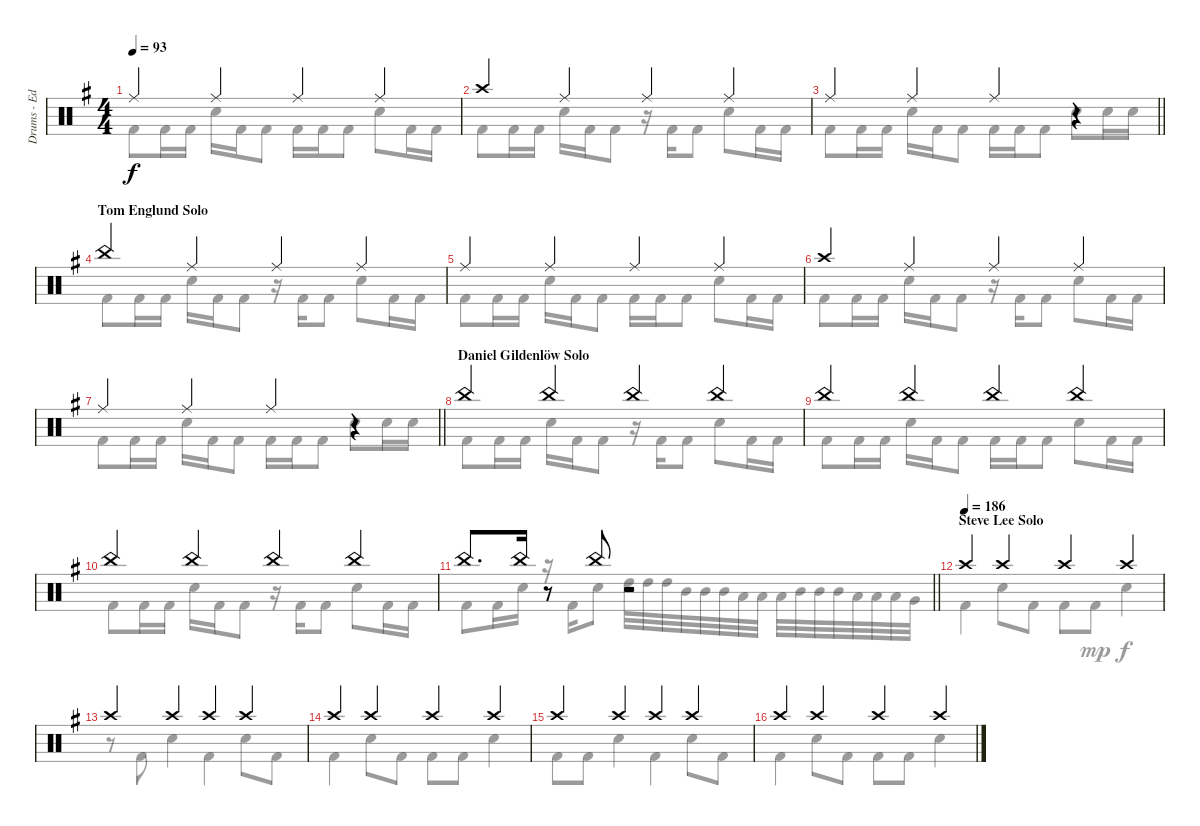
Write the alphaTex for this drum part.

\track ("Drums - Ed Warby" "Drums - Ed") {instrument percussion}
\staff {score}
\articulation defaults
\voice
\ts (4 4)
\tempo 93
\clef neutral
\ks eminor "Ride (middle)".4{dy f} "Ride (middle)".4 "Ride (middle)".4 "Ride (middle)".4
|
"Crash high (hit)".4 "Ride (middle)".4 "Ride (middle)".4 "Ride (middle)".4 |
\barLineRight lightlight "Ride (middle)".4 "Ride (middle)".4 "Ride (middle)".4
r.4 |
\section ("" "Tom Englund Solo")
"China (hit)".4 "Ride (middle)".4 "Ride (middle)".4 "Ride (middle)".4 |
"Ride (middle)".4 "Ride (middle)".4 "Ride (middle)".4 "Ride (middle)".4 |
"Crash high (hit)".4 "Ride (middle)".4 "Ride (middle)".4 "Ride (middle)".4 |
\barLineRight lightlight "Ride (middle)".4 "Ride (middle)".4 "Ride (middle)".4
r.4 |
\section ("" "Daniel Gildenlöw Solo")
"China (hit)".4 "China (hit)".4 "China (hit)".4 "China (hit)".4 |
"China (hit)".4 "China (hit)".4 "China (hit)".4 "China (hit)".4 |
"China (hit)".4 "China (hit)".4 "China (hit)".4 "China (hit)".4 |
\barLineRight lightlight "China (hit)".8{d} "China (hit)".16
r.8 "China (hit)".8 r.2 |
\section ("" "Steve Lee Solo")
\tempo (186)
"Crash high (hit)".4 "Crash high (hit)".4 "Crash high (hit)".4 "Crash high (hit)".4 |
"Crash high (hit)".4 "Crash high (hit)".4 "Crash high (hit)".4 "Crash high (hit)".4 |
"Crash high (hit)".4 "Crash high (hit)".4 "Crash high (hit)".4 "Crash high (hit)".4 |
"Crash high (hit)".4 "Crash high (hit)".4 "Crash high (hit)".4 "Crash high (hit)".4 |
"Crash high (hit)".4 "Crash high (hit)".4 "Crash high (hit)".4 "Crash high (hit)".4
\voice
\clef neutral
\ottava regular
\simile none
\ks eminor "Kick (hit) 2".8{dy f} "Kick (hit) 2".16 "Kick (hit) 2".16 "Snare (hit) 2".16 "Kick (hit) 2".16 "Kick (hit) 2".8 "Kick (hit) 2".16 "Kick (hit) 2".16 "Kick (hit) 2".8 "Snare (hit) 2".8 "Kick (hit) 2".16 "Kick (hit) 2".16
|
"Kick (hit) 2".8 "Kick (hit) 2".16 "Kick (hit) 2".16 "Snare (hit) 2".16 "Kick (hit) 2".16 "Kick (hit) 2".8 r.16 "Kick (hit) 2".16 "Kick (hit) 2".8 "Snare (hit) 2".8 "Kick (hit) 2".16 "Kick (hit) 2".16 |
\barLineRight lightlight "Kick (hit) 2".8 "Kick (hit) 2".16 "Kick (hit) 2".16 "Snare (hit) 2".16 "Kick (hit) 2".16 "Kick (hit) 2".8 "Kick (hit) 2".16 "Kick (hit) 2".16 "Kick (hit) 2".8 "Snare (hit) 2".8 "Snare (hit) 2".16 "Snare (hit) 2".16
|
"Kick (hit) 2".8 "Kick (hit) 2".16 "Kick (hit) 2".16 "Snare (hit) 2".16 "Kick (hit) 2".16 "Kick (hit) 2".8 r.16 "Kick (hit) 2".16 "Kick (hit) 2".8 "Snare (hit) 2".8 "Kick (hit) 2".16 "Kick (hit) 2".16 |
"Kick (hit) 2".8 "Kick (hit) 2".16 "Kick (hit) 2".16 "Snare (hit) 2".16 "Kick (hit) 2".16 "Kick (hit) 2".8 "Kick (hit) 2".16 "Kick (hit) 2".16 "Kick (hit) 2".8 "Snare (hit) 2".8 "Kick (hit) 2".16 "Kick (hit) 2".16 |
"Kick (hit) 2".8 "Kick (hit) 2".16 "Kick (hit) 2".16 "Snare (hit) 2".16 "Kick (hit) 2".16 "Kick (hit) 2".8 r.16 "Kick (hit) 2".16 "Kick (hit) 2".8 "Snare (hit) 2".8 "Kick (hit) 2".16 "Kick (hit) 2".16 |
\barLineRight lightlight "Kick (hit) 2".8 "Kick (hit) 2".16 "Kick (hit) 2".16 "Snare (hit) 2".16 "Kick (hit) 2".16 "Kick (hit) 2".8 "Kick (hit) 2".16 "Kick (hit) 2".16 "Kick (hit) 2".8 "Snare (hit) 2".8 "Snare (hit) 2".16 "Snare (hit) 2".16
|
"Kick (hit) 2".8 "Kick (hit) 2".16 "Kick (hit) 2".16 "Snare (hit) 2".16 "Kick (hit) 2".16 "Kick (hit) 2".8 r.16 "Kick (hit) 2".16 "Kick (hit) 2".8 "Snare (hit) 2".8 "Kick (hit) 2".16 "Kick (hit) 2".16 |
"Kick (hit) 2".8 "Kick (hit) 2".16 "Kick (hit) 2".16 "Snare (hit) 2".16 "Kick (hit) 2".16 "Kick (hit) 2".8 "Kick (hit) 2".16 "Kick (hit) 2".16 "Kick (hit) 2".8 "Snare (hit) 2".8 "Kick (hit) 2".16 "Kick (hit) 2".16 |
"Kick (hit) 2".8 "Kick (hit) 2".16 "Kick (hit) 2".16 "Snare (hit) 2".16 "Kick (hit) 2".16 "Kick (hit) 2".8 r.16 "Kick (hit) 2".16 "Kick (hit) 2".8 "Snare (hit) 2".8 "Kick (hit) 2".16 "Kick (hit) 2".16 |
\barLineRight lightlight "Kick (hit) 2".8 "Kick (hit) 2".16 "Snare (hit) 2".16
r.16 "Kick (hit) 2".16 "Snare (hit) 2".8 "High Tom (hit)".32 "High Tom (hit)".32 "High Tom (hit)".32 "Mid Tom (hit)".32 "Mid Tom (hit)".32 "Mid Tom (hit)".32 "Low Tom (hit)".32 "Low Tom (hit)".32 "Low Tom (hit)".32 "Mid Tom (hit)".32 "Mid Tom (hit)".32 "Mid Tom (hit)".32 "Low Tom (hit)".32 "Low Tom (hit)".32 "Low Tom (hit)".32 "Very Low Tom (hit)".32 |
"Kick (hit) 2".4 "Snare (hit) 2".8 "Kick (hit) 2".8 "Kick (hit) 2".8 "Kick (hit) 2".8{dy mp} "Snare (hit) 2".4{dy f} |
r.8 "Kick (hit) 2".8 "Snare (hit) 2".4 "Kick (hit) 2".4 "Snare (hit) 2".8 "Kick (hit) 2".8 |
"Kick (hit) 2".4 "Snare (hit) 2".8 "Kick (hit) 2".8 "Kick (hit) 2".8 "Kick (hit) 2".8 "Snare (hit) 2".4 |
"Kick (hit) 2".8 "Kick (hit) 2".8 "Snare (hit) 2".4 "Kick (hit) 2".4 "Snare (hit) 2".8 "Kick (hit) 2".8 |
"Kick (hit) 2".4 "Snare (hit) 2".8 "Kick (hit) 2".8 "Kick (hit) 2".8 "Kick (hit) 2".8 "Snare (hit) 2".4
